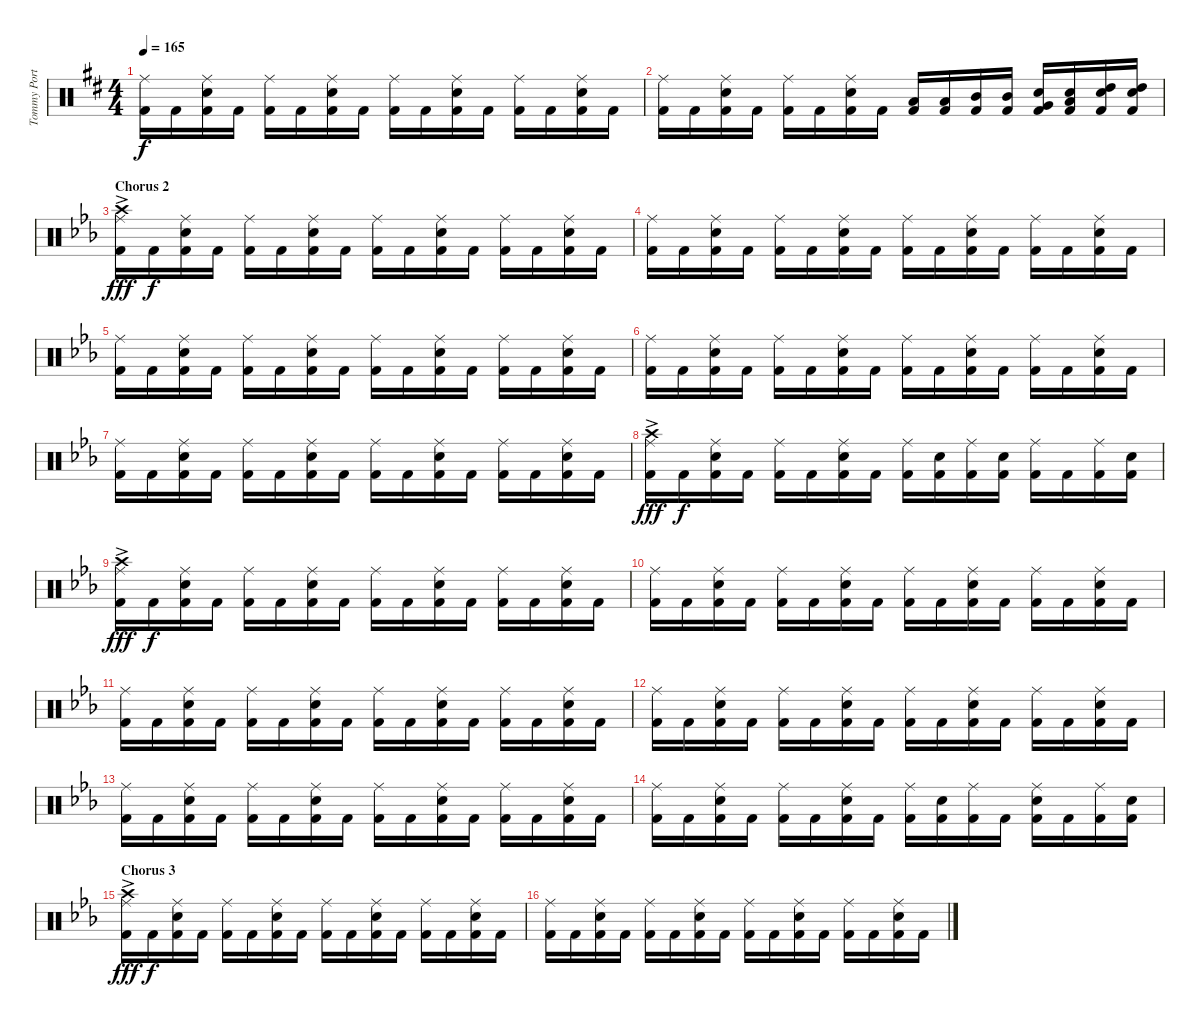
\track ("Tommy Portimo" "Tommy Port") {instrument percussion}
\staff {score}
\articulation defaults
\ts (4 4)
\tempo 165
\clef neutral
\ks bminor
("Ride (middle)" "Kick (hit) 2").16{dy f} "Kick (hit) 2".16 ("Ride (middle)" "Electric Snare (hit)" "Kick (hit) 2").16 "Kick (hit) 2".16 ("Ride (middle)" "Kick (hit) 2").16 "Kick (hit) 2".16 ("Ride (middle)" "Electric Snare (hit)" "Kick (hit) 2").16 "Kick (hit) 2".16 ("Ride (middle)" "Kick (hit) 2").16 "Kick (hit) 2".16 ("Ride (middle)" "Electric Snare (hit)" "Kick (hit) 2").16 "Kick (hit) 2".16 ("Ride (middle)" "Kick (hit) 2").16 "Kick (hit) 2".16 ("Ride (middle)" "Electric Snare (hit)" "Kick (hit) 2").16 "Kick (hit) 2".16 |
("Ride (middle)" "Kick (hit) 2").16 "Kick (hit) 2".16 ("Ride (middle)" "Electric Snare (hit)" "Kick (hit) 2").16 "Kick (hit) 2".16 ("Ride (middle)" "Kick (hit) 2").16 "Kick (hit) 2".16 ("Ride (middle)" "Electric Snare (hit)" "Kick (hit) 2").16 "Kick (hit) 2".16 ("Low Tom (hit)" "Kick (hit) 2").16 ("Low Tom (hit)" "Kick (hit) 2").16 ("Mid Tom (hit)" "Kick (hit) 2").16 ("Mid Tom (hit)" "Kick (hit) 2").16 ("Very Low Tom (hit)" "Electric Snare (hit)" "Kick (hit) 2").16 ("Low Floor Tom (hit)" "Electric Snare (hit)" "Kick (hit) 2").16 ("High Tom (hit)" "Electric Snare (hit)" "Kick (hit) 2").16 ("High Tom (hit)" "Electric Snare (hit)" "Kick (hit) 2").16 |
\section ("" "Chorus 2")
\ks cminor
("Crash high (hit)"{ac} "Ride (middle)" "Kick (hit) 2").16{dy fff} "Kick (hit) 2".16{dy f} ("Ride (middle)" "Electric Snare (hit)" "Kick (hit) 2").16 "Kick (hit) 2".16 ("Ride (middle)" "Kick (hit) 2").16 "Kick (hit) 2".16 ("Ride (middle)" "Electric Snare (hit)" "Kick (hit) 2").16 "Kick (hit) 2".16 ("Ride (middle)" "Kick (hit) 2").16 "Kick (hit) 2".16 ("Ride (middle)" "Electric Snare (hit)" "Kick (hit) 2").16 "Kick (hit) 2".16 ("Ride (middle)" "Kick (hit) 2").16 "Kick (hit) 2".16 ("Ride (middle)" "Electric Snare (hit)" "Kick (hit) 2").16 "Kick (hit) 2".16 |
("Ride (middle)" "Kick (hit) 2").16 "Kick (hit) 2".16 ("Ride (middle)" "Electric Snare (hit)" "Kick (hit) 2").16 "Kick (hit) 2".16 ("Ride (middle)" "Kick (hit) 2").16 "Kick (hit) 2".16 ("Ride (middle)" "Electric Snare (hit)" "Kick (hit) 2").16 "Kick (hit) 2".16 ("Ride (middle)" "Kick (hit) 2").16 "Kick (hit) 2".16 ("Ride (middle)" "Electric Snare (hit)" "Kick (hit) 2").16 "Kick (hit) 2".16 ("Ride (middle)" "Kick (hit) 2").16 "Kick (hit) 2".16 ("Ride (middle)" "Electric Snare (hit)" "Kick (hit) 2").16 "Kick (hit) 2".16 |
("Ride (middle)" "Kick (hit) 2").16 "Kick (hit) 2".16 ("Ride (middle)" "Electric Snare (hit)" "Kick (hit) 2").16 "Kick (hit) 2".16 ("Ride (middle)" "Kick (hit) 2").16 "Kick (hit) 2".16 ("Ride (middle)" "Electric Snare (hit)" "Kick (hit) 2").16 "Kick (hit) 2".16 ("Ride (middle)" "Kick (hit) 2").16 "Kick (hit) 2".16 ("Ride (middle)" "Electric Snare (hit)" "Kick (hit) 2").16 "Kick (hit) 2".16 ("Ride (middle)" "Kick (hit) 2").16 "Kick (hit) 2".16 ("Ride (middle)" "Electric Snare (hit)" "Kick (hit) 2").16 "Kick (hit) 2".16 |
("Ride (middle)" "Kick (hit) 2").16 "Kick (hit) 2".16 ("Ride (middle)" "Electric Snare (hit)" "Kick (hit) 2").16 "Kick (hit) 2".16 ("Ride (middle)" "Kick (hit) 2").16 "Kick (hit) 2".16 ("Ride (middle)" "Electric Snare (hit)" "Kick (hit) 2").16 "Kick (hit) 2".16 ("Ride (middle)" "Kick (hit) 2").16 "Kick (hit) 2".16 ("Ride (middle)" "Electric Snare (hit)" "Kick (hit) 2").16 "Kick (hit) 2".16 ("Ride (middle)" "Kick (hit) 2").16 "Kick (hit) 2".16 ("Ride (middle)" "Electric Snare (hit)" "Kick (hit) 2").16 "Kick (hit) 2".16 |
("Ride (middle)" "Kick (hit) 2").16 "Kick (hit) 2".16 ("Ride (middle)" "Electric Snare (hit)" "Kick (hit) 2").16 "Kick (hit) 2".16 ("Ride (middle)" "Kick (hit) 2").16 "Kick (hit) 2".16 ("Ride (middle)" "Electric Snare (hit)" "Kick (hit) 2").16 "Kick (hit) 2".16 ("Ride (middle)" "Kick (hit) 2").16 "Kick (hit) 2".16 ("Ride (middle)" "Electric Snare (hit)" "Kick (hit) 2").16 "Kick (hit) 2".16 ("Ride (middle)" "Kick (hit) 2").16 "Kick (hit) 2".16 ("Ride (middle)" "Electric Snare (hit)" "Kick (hit) 2").16 "Kick (hit) 2".16 |
("Crash high (hit)"{ac} "Ride (middle)" "Kick (hit) 2").16{dy fff} "Kick (hit) 2".16{dy f} ("Ride (middle)" "Electric Snare (hit)" "Kick (hit) 2").16 "Kick (hit) 2".16 ("Ride (middle)" "Kick (hit) 2").16 "Kick (hit) 2".16 ("Ride (middle)" "Electric Snare (hit)" "Kick (hit) 2").16 "Kick (hit) 2".16 ("Ride (middle)" "Kick (hit) 2").16 ("Electric Snare (hit)" "Kick (hit) 2").16 ("Ride (middle)" "Kick (hit) 2").16 ("Electric Snare (hit)" "Kick (hit) 2").16 ("Ride (middle)" "Kick (hit) 2").16 "Kick (hit) 2".16 ("Ride (middle)" "Kick (hit) 2").16 ("Electric Snare (hit)" "Kick (hit) 2").16 |
("Crash high (hit)"{ac} "Ride (middle)" "Kick (hit) 2").16{dy fff} "Kick (hit) 2".16{dy f} ("Ride (middle)" "Electric Snare (hit)" "Kick (hit) 2").16 "Kick (hit) 2".16 ("Ride (middle)" "Kick (hit) 2").16 "Kick (hit) 2".16 ("Ride (middle)" "Electric Snare (hit)" "Kick (hit) 2").16 "Kick (hit) 2".16 ("Ride (middle)" "Kick (hit) 2").16 "Kick (hit) 2".16 ("Ride (middle)" "Electric Snare (hit)" "Kick (hit) 2").16 "Kick (hit) 2".16 ("Ride (middle)" "Kick (hit) 2").16 "Kick (hit) 2".16 ("Ride (middle)" "Electric Snare (hit)" "Kick (hit) 2").16 "Kick (hit) 2".16 |
("Ride (middle)" "Kick (hit) 2").16 "Kick (hit) 2".16 ("Ride (middle)" "Electric Snare (hit)" "Kick (hit) 2").16 "Kick (hit) 2".16 ("Ride (middle)" "Kick (hit) 2").16 "Kick (hit) 2".16 ("Ride (middle)" "Electric Snare (hit)" "Kick (hit) 2").16 "Kick (hit) 2".16 ("Ride (middle)" "Kick (hit) 2").16 "Kick (hit) 2".16 ("Ride (middle)" "Electric Snare (hit)" "Kick (hit) 2").16 "Kick (hit) 2".16 ("Ride (middle)" "Kick (hit) 2").16 "Kick (hit) 2".16 ("Ride (middle)" "Electric Snare (hit)" "Kick (hit) 2").16 "Kick (hit) 2".16 |
("Ride (middle)" "Kick (hit) 2").16 "Kick (hit) 2".16 ("Ride (middle)" "Electric Snare (hit)" "Kick (hit) 2").16 "Kick (hit) 2".16 ("Ride (middle)" "Kick (hit) 2").16 "Kick (hit) 2".16 ("Ride (middle)" "Electric Snare (hit)" "Kick (hit) 2").16 "Kick (hit) 2".16 ("Ride (middle)" "Kick (hit) 2").16 "Kick (hit) 2".16 ("Ride (middle)" "Electric Snare (hit)" "Kick (hit) 2").16 "Kick (hit) 2".16 ("Ride (middle)" "Kick (hit) 2").16 "Kick (hit) 2".16 ("Ride (middle)" "Electric Snare (hit)" "Kick (hit) 2").16 "Kick (hit) 2".16 |
("Ride (middle)" "Kick (hit) 2").16 "Kick (hit) 2".16 ("Ride (middle)" "Electric Snare (hit)" "Kick (hit) 2").16 "Kick (hit) 2".16 ("Ride (middle)" "Kick (hit) 2").16 "Kick (hit) 2".16 ("Ride (middle)" "Electric Snare (hit)" "Kick (hit) 2").16 "Kick (hit) 2".16 ("Ride (middle)" "Kick (hit) 2").16 "Kick (hit) 2".16 ("Ride (middle)" "Electric Snare (hit)" "Kick (hit) 2").16 "Kick (hit) 2".16 ("Ride (middle)" "Kick (hit) 2").16 "Kick (hit) 2".16 ("Ride (middle)" "Electric Snare (hit)" "Kick (hit) 2").16 "Kick (hit) 2".16 |
("Ride (middle)" "Kick (hit) 2").16 "Kick (hit) 2".16 ("Ride (middle)" "Electric Snare (hit)" "Kick (hit) 2").16 "Kick (hit) 2".16 ("Ride (middle)" "Kick (hit) 2").16 "Kick (hit) 2".16 ("Ride (middle)" "Electric Snare (hit)" "Kick (hit) 2").16 "Kick (hit) 2".16 ("Ride (middle)" "Kick (hit) 2").16 "Kick (hit) 2".16 ("Ride (middle)" "Electric Snare (hit)" "Kick (hit) 2").16 "Kick (hit) 2".16 ("Ride (middle)" "Kick (hit) 2").16 "Kick (hit) 2".16 ("Ride (middle)" "Electric Snare (hit)" "Kick (hit) 2").16 "Kick (hit) 2".16 |
("Ride (middle)" "Kick (hit) 2").16 "Kick (hit) 2".16 ("Ride (middle)" "Electric Snare (hit)" "Kick (hit) 2").16 "Kick (hit) 2".16 ("Ride (middle)" "Kick (hit) 2").16 "Kick (hit) 2".16 ("Ride (middle)" "Electric Snare (hit)" "Kick (hit) 2").16 "Kick (hit) 2".16 ("Ride (middle)" "Kick (hit) 2").16 ("Electric Snare (hit)" "Kick (hit) 2").16 ("Ride (middle)" "Kick (hit) 2").16 "Kick (hit) 2".16 ("Ride (middle)" "Electric Snare (hit)" "Kick (hit) 2").16 "Kick (hit) 2".16 ("Ride (middle)" "Kick (hit) 2").16 ("Electric Snare (hit)" "Kick (hit) 2").16 |
\section ("" "Chorus 3")
("Crash high (hit)"{ac} "Ride (middle)" "Kick (hit) 2").16{dy fff} "Kick (hit) 2".16{dy f} ("Ride (middle)" "Electric Snare (hit)" "Kick (hit) 2").16 "Kick (hit) 2".16 ("Ride (middle)" "Kick (hit) 2").16 "Kick (hit) 2".16 ("Ride (middle)" "Electric Snare (hit)" "Kick (hit) 2").16 "Kick (hit) 2".16 ("Ride (middle)" "Kick (hit) 2").16 "Kick (hit) 2".16 ("Ride (middle)" "Electric Snare (hit)" "Kick (hit) 2").16 "Kick (hit) 2".16 ("Ride (middle)" "Kick (hit) 2").16 "Kick (hit) 2".16 ("Ride (middle)" "Electric Snare (hit)" "Kick (hit) 2").16 "Kick (hit) 2".16 |
("Ride (middle)" "Kick (hit) 2").16 "Kick (hit) 2".16 ("Ride (middle)" "Electric Snare (hit)" "Kick (hit) 2").16 "Kick (hit) 2".16 ("Ride (middle)" "Kick (hit) 2").16 "Kick (hit) 2".16 ("Ride (middle)" "Electric Snare (hit)" "Kick (hit) 2").16 "Kick (hit) 2".16 ("Ride (middle)" "Kick (hit) 2").16 "Kick (hit) 2".16 ("Ride (middle)" "Electric Snare (hit)" "Kick (hit) 2").16 "Kick (hit) 2".16 ("Ride (middle)" "Kick (hit) 2").16 "Kick (hit) 2".16 ("Ride (middle)" "Electric Snare (hit)" "Kick (hit) 2").16 "Kick (hit) 2".16
